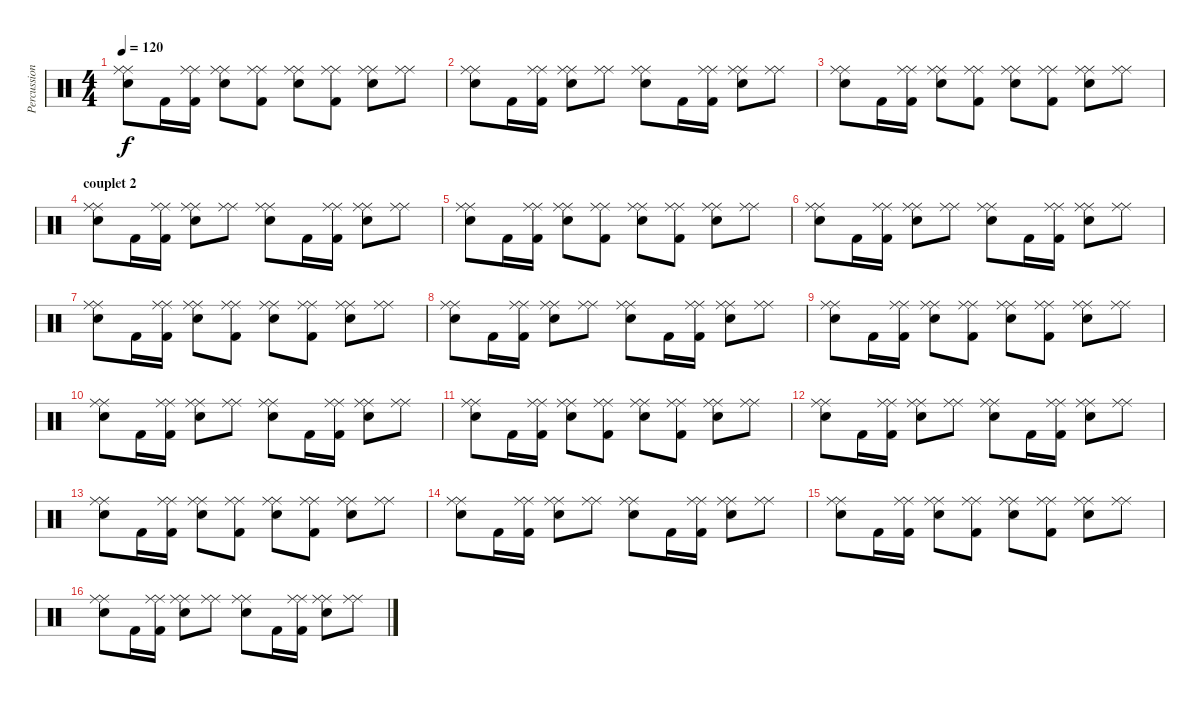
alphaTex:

\track ("Percussions" "Percussion") {instrument percussion}
\staff {score}
\articulation defaults
\ts (4 4)
\tempo 120
\clef neutral
\ks c
("Ride (middle)" "Ride (middle)" "Electric Snare (hit)").8{dy f} "Kick (hit) 2".16 ("Ride (middle)" "Ride (middle)" "Kick (hit) 2").16 ("Ride (middle)" "Ride (middle)" "Electric Snare (hit)").8 ("Ride (middle)" "Ride (middle)" "Kick (hit) 2").8 ("Ride (middle)" "Ride (middle)" "Electric Snare (hit)").8 ("Ride (middle)" "Ride (middle)" "Kick (hit) 2").8 ("Ride (middle)" "Ride (middle)" "Electric Snare (hit)").8 ("Ride (middle)" "Ride (middle)").8 |
("Ride (middle)" "Ride (middle)" "Electric Snare (hit)").8 "Kick (hit) 2".16 ("Ride (middle)" "Ride (middle)" "Kick (hit) 2").16 ("Ride (middle)" "Ride (middle)" "Electric Snare (hit)").8 ("Ride (middle)" "Ride (middle)").8 ("Ride (middle)" "Ride (middle)" "Electric Snare (hit)").8 "Kick (hit) 2".16 ("Ride (middle)" "Ride (middle)" "Kick (hit) 2").16 ("Ride (middle)" "Ride (middle)" "Electric Snare (hit)").8 ("Ride (middle)" "Ride (middle)").8 |
("Ride (middle)" "Ride (middle)" "Electric Snare (hit)").8 "Kick (hit) 2".16 ("Ride (middle)" "Ride (middle)" "Kick (hit) 2").16 ("Ride (middle)" "Ride (middle)" "Electric Snare (hit)").8 ("Ride (middle)" "Ride (middle)" "Kick (hit) 2").8 ("Ride (middle)" "Ride (middle)" "Electric Snare (hit)").8 ("Ride (middle)" "Ride (middle)" "Kick (hit) 2").8 ("Ride (middle)" "Ride (middle)" "Electric Snare (hit)").8 ("Ride (middle)" "Ride (middle)").8 |
\section ("" "couplet 2")
("Ride (middle)" "Ride (middle)" "Electric Snare (hit)").8 "Kick (hit) 2".16 ("Ride (middle)" "Ride (middle)" "Kick (hit) 2").16 ("Ride (middle)" "Ride (middle)" "Electric Snare (hit)").8 ("Ride (middle)" "Ride (middle)").8 ("Ride (middle)" "Ride (middle)" "Electric Snare (hit)").8 "Kick (hit) 2".16 ("Ride (middle)" "Ride (middle)" "Kick (hit) 2").16 ("Ride (middle)" "Ride (middle)" "Electric Snare (hit)").8 ("Ride (middle)" "Ride (middle)").8 |
("Ride (middle)" "Ride (middle)" "Electric Snare (hit)").8 "Kick (hit) 2".16 ("Ride (middle)" "Ride (middle)" "Kick (hit) 2").16 ("Ride (middle)" "Ride (middle)" "Electric Snare (hit)").8 ("Ride (middle)" "Ride (middle)" "Kick (hit) 2").8 ("Ride (middle)" "Ride (middle)" "Electric Snare (hit)").8 ("Ride (middle)" "Ride (middle)" "Kick (hit) 2").8 ("Ride (middle)" "Ride (middle)" "Electric Snare (hit)").8 ("Ride (middle)" "Ride (middle)").8 |
("Ride (middle)" "Ride (middle)" "Electric Snare (hit)").8 "Kick (hit) 2".16 ("Ride (middle)" "Ride (middle)" "Kick (hit) 2").16 ("Ride (middle)" "Ride (middle)" "Electric Snare (hit)").8 ("Ride (middle)" "Ride (middle)").8 ("Ride (middle)" "Ride (middle)" "Electric Snare (hit)").8 "Kick (hit) 2".16 ("Ride (middle)" "Ride (middle)" "Kick (hit) 2").16 ("Ride (middle)" "Ride (middle)" "Electric Snare (hit)").8 ("Ride (middle)" "Ride (middle)").8 |
("Ride (middle)" "Ride (middle)" "Electric Snare (hit)").8 "Kick (hit) 2".16 ("Ride (middle)" "Ride (middle)" "Kick (hit) 2").16 ("Ride (middle)" "Ride (middle)" "Electric Snare (hit)").8 ("Ride (middle)" "Ride (middle)" "Kick (hit) 2").8 ("Ride (middle)" "Ride (middle)" "Electric Snare (hit)").8 ("Ride (middle)" "Ride (middle)" "Kick (hit) 2").8 ("Ride (middle)" "Ride (middle)" "Electric Snare (hit)").8 ("Ride (middle)" "Ride (middle)").8 |
("Ride (middle)" "Ride (middle)" "Electric Snare (hit)").8 "Kick (hit) 2".16 ("Ride (middle)" "Ride (middle)" "Kick (hit) 2").16 ("Ride (middle)" "Ride (middle)" "Electric Snare (hit)").8 ("Ride (middle)" "Ride (middle)").8 ("Ride (middle)" "Ride (middle)" "Electric Snare (hit)").8 "Kick (hit) 2".16 ("Ride (middle)" "Ride (middle)" "Kick (hit) 2").16 ("Ride (middle)" "Ride (middle)" "Electric Snare (hit)").8 ("Ride (middle)" "Ride (middle)").8 |
("Ride (middle)" "Ride (middle)" "Electric Snare (hit)").8 "Kick (hit) 2".16 ("Ride (middle)" "Ride (middle)" "Kick (hit) 2").16 ("Ride (middle)" "Ride (middle)" "Electric Snare (hit)").8 ("Ride (middle)" "Ride (middle)" "Kick (hit) 2").8 ("Ride (middle)" "Ride (middle)" "Electric Snare (hit)").8 ("Ride (middle)" "Ride (middle)" "Kick (hit) 2").8 ("Ride (middle)" "Ride (middle)" "Electric Snare (hit)").8 ("Ride (middle)" "Ride (middle)").8 |
("Ride (middle)" "Ride (middle)" "Electric Snare (hit)").8 "Kick (hit) 2".16 ("Ride (middle)" "Ride (middle)" "Kick (hit) 2").16 ("Ride (middle)" "Ride (middle)" "Electric Snare (hit)").8 ("Ride (middle)" "Ride (middle)").8 ("Ride (middle)" "Ride (middle)" "Electric Snare (hit)").8 "Kick (hit) 2".16 ("Ride (middle)" "Ride (middle)" "Kick (hit) 2").16 ("Ride (middle)" "Ride (middle)" "Electric Snare (hit)").8 ("Ride (middle)" "Ride (middle)").8 |
("Ride (middle)" "Ride (middle)" "Electric Snare (hit)").8 "Kick (hit) 2".16 ("Ride (middle)" "Ride (middle)" "Kick (hit) 2").16 ("Ride (middle)" "Ride (middle)" "Electric Snare (hit)").8 ("Ride (middle)" "Ride (middle)" "Kick (hit) 2").8 ("Ride (middle)" "Ride (middle)" "Electric Snare (hit)").8 ("Ride (middle)" "Ride (middle)" "Kick (hit) 2").8 ("Ride (middle)" "Ride (middle)" "Electric Snare (hit)").8 ("Ride (middle)" "Ride (middle)").8 |
("Ride (middle)" "Ride (middle)" "Electric Snare (hit)").8 "Kick (hit) 2".16 ("Ride (middle)" "Ride (middle)" "Kick (hit) 2").16 ("Ride (middle)" "Ride (middle)" "Electric Snare (hit)").8 ("Ride (middle)" "Ride (middle)").8 ("Ride (middle)" "Ride (middle)" "Electric Snare (hit)").8 "Kick (hit) 2".16 ("Ride (middle)" "Ride (middle)" "Kick (hit) 2").16 ("Ride (middle)" "Ride (middle)" "Electric Snare (hit)").8 ("Ride (middle)" "Ride (middle)").8 |
("Ride (middle)" "Ride (middle)" "Electric Snare (hit)").8 "Kick (hit) 2".16 ("Ride (middle)" "Ride (middle)" "Kick (hit) 2").16 ("Ride (middle)" "Ride (middle)" "Electric Snare (hit)").8 ("Ride (middle)" "Ride (middle)" "Kick (hit) 2").8 ("Ride (middle)" "Ride (middle)" "Electric Snare (hit)").8 ("Ride (middle)" "Ride (middle)" "Kick (hit) 2").8 ("Ride (middle)" "Ride (middle)" "Electric Snare (hit)").8 ("Ride (middle)" "Ride (middle)").8 |
("Ride (middle)" "Ride (middle)" "Electric Snare (hit)").8 "Kick (hit) 2".16 ("Ride (middle)" "Ride (middle)" "Kick (hit) 2").16 ("Ride (middle)" "Ride (middle)" "Electric Snare (hit)").8 ("Ride (middle)" "Ride (middle)").8 ("Ride (middle)" "Ride (middle)" "Electric Snare (hit)").8 "Kick (hit) 2".16 ("Ride (middle)" "Ride (middle)" "Kick (hit) 2").16 ("Ride (middle)" "Ride (middle)" "Electric Snare (hit)").8 ("Ride (middle)" "Ride (middle)").8 |
("Ride (middle)" "Ride (middle)" "Electric Snare (hit)").8 "Kick (hit) 2".16 ("Ride (middle)" "Ride (middle)" "Kick (hit) 2").16 ("Ride (middle)" "Ride (middle)" "Electric Snare (hit)").8 ("Ride (middle)" "Ride (middle)" "Kick (hit) 2").8 ("Ride (middle)" "Ride (middle)" "Electric Snare (hit)").8 ("Ride (middle)" "Ride (middle)" "Kick (hit) 2").8 ("Ride (middle)" "Ride (middle)" "Electric Snare (hit)").8 ("Ride (middle)" "Ride (middle)").8 |
("Ride (middle)" "Ride (middle)" "Electric Snare (hit)").8 "Kick (hit) 2".16 ("Ride (middle)" "Ride (middle)" "Kick (hit) 2").16 ("Ride (middle)" "Ride (middle)" "Electric Snare (hit)").8 ("Ride (middle)" "Ride (middle)").8 ("Ride (middle)" "Ride (middle)" "Electric Snare (hit)").8 "Kick (hit) 2".16 ("Ride (middle)" "Ride (middle)" "Kick (hit) 2").16 ("Ride (middle)" "Ride (middle)" "Electric Snare (hit)").8 ("Ride (middle)" "Ride (middle)").8
